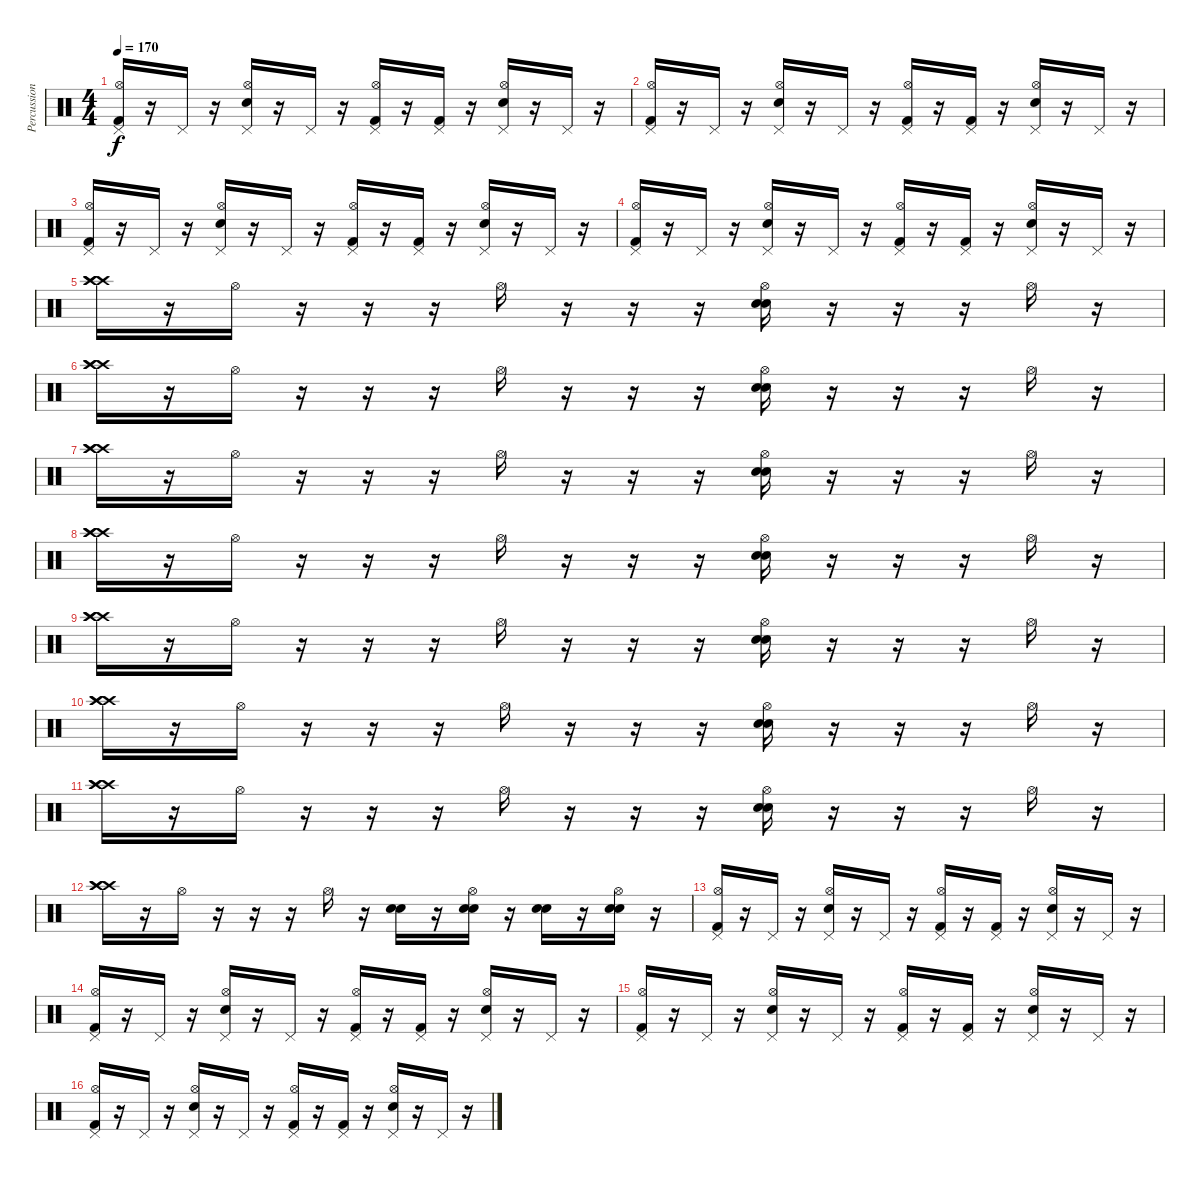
\track ("Percussion" "Percussion") {instrument percussion}
\staff {score}
\articulation defaults
\ts (4 4)
\tempo 170
\clef neutral
\ks c
("Pedal Hi-Hat (hit)" "Hi-Hat (open)" "Kick (hit) 2").16{dy f} r.16 "Pedal Hi-Hat (hit)".16 r.16 ("Pedal Hi-Hat (hit)" "Hi-Hat (open)" "Snare (hit) 2").16 r.16 "Pedal Hi-Hat (hit)".16 r.16 ("Pedal Hi-Hat (hit)" "Hi-Hat (open)" "Kick (hit) 2").16 r.16 ("Pedal Hi-Hat (hit)" "Kick (hit) 2").16 r.16 ("Pedal Hi-Hat (hit)" "Hi-Hat (open)" "Snare (hit) 2").16 r.16 "Pedal Hi-Hat (hit)".16 r.16 |
("Pedal Hi-Hat (hit)" "Hi-Hat (open)" "Kick (hit) 2").16 r.16 "Pedal Hi-Hat (hit)".16 r.16 ("Pedal Hi-Hat (hit)" "Hi-Hat (open)" "Snare (hit) 2").16 r.16 "Pedal Hi-Hat (hit)".16 r.16 ("Pedal Hi-Hat (hit)" "Hi-Hat (open)" "Kick (hit) 2").16 r.16 ("Pedal Hi-Hat (hit)" "Kick (hit) 2").16 r.16 ("Pedal Hi-Hat (hit)" "Hi-Hat (open)" "Snare (hit) 2").16 r.16 "Pedal Hi-Hat (hit)".16 r.16 |
("Pedal Hi-Hat (hit)" "Hi-Hat (open)" "Kick (hit) 2").16 r.16 "Pedal Hi-Hat (hit)".16 r.16 ("Pedal Hi-Hat (hit)" "Hi-Hat (open)" "Snare (hit) 2").16 r.16 "Pedal Hi-Hat (hit)".16 r.16 ("Pedal Hi-Hat (hit)" "Hi-Hat (open)" "Kick (hit) 2").16 r.16 ("Pedal Hi-Hat (hit)" "Kick (hit) 2").16 r.16 ("Pedal Hi-Hat (hit)" "Hi-Hat (open)" "Snare (hit) 2").16 r.16 "Pedal Hi-Hat (hit)".16 r.16 |
("Pedal Hi-Hat (hit)" "Hi-Hat (open)" "Kick (hit) 2").16 r.16 "Pedal Hi-Hat (hit)".16 r.16 ("Pedal Hi-Hat (hit)" "Hi-Hat (open)" "Snare (hit) 2").16 r.16 "Pedal Hi-Hat (hit)".16 r.16 ("Pedal Hi-Hat (hit)" "Hi-Hat (open)" "Kick (hit) 2").16 r.16 ("Pedal Hi-Hat (hit)" "Kick (hit) 2").16 r.16 ("Pedal Hi-Hat (hit)" "Hi-Hat (open)" "Snare (hit) 2").16 r.16 "Pedal Hi-Hat (hit)".16 r.16 |
("Crash high (hit)" "Crash high (hit)" "Crash high (hit)").16 r.16 "Hi-Hat (open)".16 r.16 r.16 r.16 "Hi-Hat (open)".16 r.16 r.16 r.16 ("Hi-Hat (open)" "Snare (hit) 2" "Snare (hit) 2").16 r.16 r.16 r.16 "Hi-Hat (open)".16 r.16 |
("Crash high (hit)" "Crash high (hit)" "Crash high (hit)").16 r.16 "Hi-Hat (open)".16 r.16 r.16 r.16 "Hi-Hat (open)".16 r.16 r.16 r.16 ("Hi-Hat (open)" "Snare (hit) 2" "Snare (hit) 2").16 r.16 r.16 r.16 "Hi-Hat (open)".16 r.16 |
("Crash high (hit)" "Crash high (hit)" "Crash high (hit)").16 r.16 "Hi-Hat (open)".16 r.16 r.16 r.16 "Hi-Hat (open)".16 r.16 r.16 r.16 ("Hi-Hat (open)" "Snare (hit) 2" "Snare (hit) 2").16 r.16 r.16 r.16 "Hi-Hat (open)".16 r.16 |
("Crash high (hit)" "Crash high (hit)" "Crash high (hit)").16 r.16 "Hi-Hat (open)".16 r.16 r.16 r.16 "Hi-Hat (open)".16 r.16 r.16 r.16 ("Hi-Hat (open)" "Snare (hit) 2" "Snare (hit) 2").16 r.16 r.16 r.16 "Hi-Hat (open)".16 r.16 |
("Crash high (hit)" "Crash high (hit)" "Crash high (hit)").16 r.16 "Hi-Hat (open)".16 r.16 r.16 r.16 "Hi-Hat (open)".16 r.16 r.16 r.16 ("Hi-Hat (open)" "Snare (hit) 2" "Snare (hit) 2").16 r.16 r.16 r.16 "Hi-Hat (open)".16 r.16 |
("Crash high (hit)" "Crash high (hit)" "Crash high (hit)").16 r.16 "Hi-Hat (open)".16 r.16 r.16 r.16 "Hi-Hat (open)".16 r.16 r.16 r.16 ("Hi-Hat (open)" "Snare (hit) 2" "Snare (hit) 2").16 r.16 r.16 r.16 "Hi-Hat (open)".16 r.16 |
("Crash high (hit)" "Crash high (hit)" "Crash high (hit)").16 r.16 "Hi-Hat (open)".16 r.16 r.16 r.16 "Hi-Hat (open)".16 r.16 r.16 r.16 ("Hi-Hat (open)" "Snare (hit) 2" "Snare (hit) 2").16 r.16 r.16 r.16 "Hi-Hat (open)".16 r.16 |
("Crash high (hit)" "Crash high (hit)" "Crash high (hit)").16 r.16 "Hi-Hat (open)".16 r.16 r.16 r.16 "Hi-Hat (open)".16 r.16 ("Snare (hit) 2" "Snare (hit) 2").16 r.16 ("Hi-Hat (open)" "Snare (hit) 2" "Snare (hit) 2").16 r.16 ("Snare (hit) 2" "Snare (hit) 2").16 r.16 ("Hi-Hat (open)" "Snare (hit) 2" "Snare (hit) 2").16 r.16 |
("Pedal Hi-Hat (hit)" "Hi-Hat (open)" "Kick (hit) 2").16 r.16 "Pedal Hi-Hat (hit)".16 r.16 ("Pedal Hi-Hat (hit)" "Hi-Hat (open)" "Snare (hit) 2").16 r.16 "Pedal Hi-Hat (hit)".16 r.16 ("Pedal Hi-Hat (hit)" "Hi-Hat (open)" "Kick (hit) 2").16 r.16 ("Pedal Hi-Hat (hit)" "Kick (hit) 2").16 r.16 ("Pedal Hi-Hat (hit)" "Hi-Hat (open)" "Snare (hit) 2").16 r.16 "Pedal Hi-Hat (hit)".16 r.16 |
("Pedal Hi-Hat (hit)" "Hi-Hat (open)" "Kick (hit) 2").16 r.16 "Pedal Hi-Hat (hit)".16 r.16 ("Pedal Hi-Hat (hit)" "Hi-Hat (open)" "Snare (hit) 2").16 r.16 "Pedal Hi-Hat (hit)".16 r.16 ("Pedal Hi-Hat (hit)" "Hi-Hat (open)" "Kick (hit) 2").16 r.16 ("Pedal Hi-Hat (hit)" "Kick (hit) 2").16 r.16 ("Pedal Hi-Hat (hit)" "Hi-Hat (open)" "Snare (hit) 2").16 r.16 "Pedal Hi-Hat (hit)".16 r.16 |
("Pedal Hi-Hat (hit)" "Hi-Hat (open)" "Kick (hit) 2").16 r.16 "Pedal Hi-Hat (hit)".16 r.16 ("Pedal Hi-Hat (hit)" "Hi-Hat (open)" "Snare (hit) 2").16 r.16 "Pedal Hi-Hat (hit)".16 r.16 ("Pedal Hi-Hat (hit)" "Hi-Hat (open)" "Kick (hit) 2").16 r.16 ("Pedal Hi-Hat (hit)" "Kick (hit) 2").16 r.16 ("Pedal Hi-Hat (hit)" "Hi-Hat (open)" "Snare (hit) 2").16 r.16 "Pedal Hi-Hat (hit)".16 r.16 |
("Pedal Hi-Hat (hit)" "Hi-Hat (open)" "Kick (hit) 2").16 r.16 "Pedal Hi-Hat (hit)".16 r.16 ("Pedal Hi-Hat (hit)" "Hi-Hat (open)" "Snare (hit) 2").16 r.16 "Pedal Hi-Hat (hit)".16 r.16 ("Pedal Hi-Hat (hit)" "Hi-Hat (open)" "Kick (hit) 2").16 r.16 ("Pedal Hi-Hat (hit)" "Kick (hit) 2").16 r.16 ("Pedal Hi-Hat (hit)" "Hi-Hat (open)" "Snare (hit) 2").16 r.16 "Pedal Hi-Hat (hit)".16 r.16
